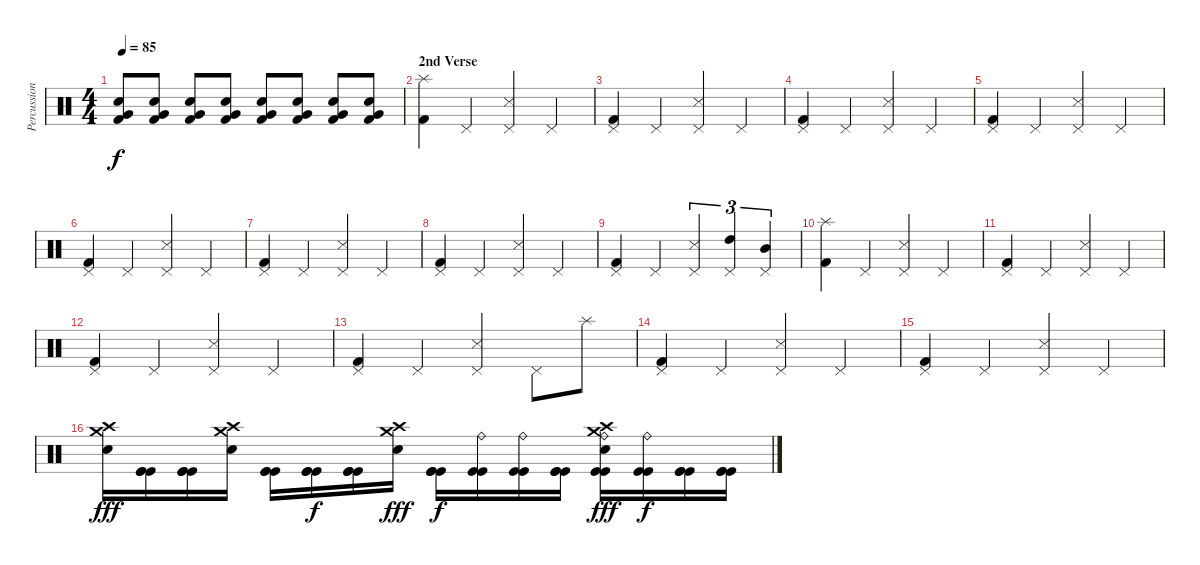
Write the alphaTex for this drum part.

\track ("Percussion" "Percussion") {instrument percussion}
\staff {score}
\articulation defaults
\ts (4 4)
\tempo 85
\clef neutral
\ks c
("Very Low Tom (hit)" "Electric Snare (hit)" "Kick (hit) 2").8{dy f} ("Very Low Tom (hit)" "Electric Snare (hit)" "Kick (hit) 2").8 ("Very Low Tom (hit)" "Electric Snare (hit)" "Kick (hit) 2").8 ("Very Low Tom (hit)" "Electric Snare (hit)" "Kick (hit) 2").8 ("Very Low Tom (hit)" "Electric Snare (hit)" "Kick (hit) 2").8 ("Very Low Tom (hit)" "Electric Snare (hit)" "Kick (hit) 2").8 ("Very Low Tom (hit)" "Electric Snare (hit)" "Kick (hit) 2").8 ("Very Low Tom (hit)" "Electric Snare (hit)" "Kick (hit) 2").8 |
\section ("" "2nd Verse")
("Splash (hit)" "Kick (hit) 2").4 "Pedal Hi-Hat (hit)".4 ("Pedal Hi-Hat (hit)" "Snare (side stick) 3").4 "Pedal Hi-Hat (hit)".4 |
("Pedal Hi-Hat (hit)" "Kick (hit) 2").4 "Pedal Hi-Hat (hit)".4 ("Pedal Hi-Hat (hit)" "Snare (side stick) 3").4 "Pedal Hi-Hat (hit)".4 |
("Pedal Hi-Hat (hit)" "Kick (hit) 2").4 "Pedal Hi-Hat (hit)".4 ("Pedal Hi-Hat (hit)" "Snare (side stick) 3").4 "Pedal Hi-Hat (hit)".4 |
("Pedal Hi-Hat (hit)" "Kick (hit) 2").4 "Pedal Hi-Hat (hit)".4 ("Pedal Hi-Hat (hit)" "Snare (side stick) 3").4 "Pedal Hi-Hat (hit)".4 |
("Pedal Hi-Hat (hit)" "Kick (hit) 2").4 "Pedal Hi-Hat (hit)".4 ("Pedal Hi-Hat (hit)" "Snare (side stick) 3").4 "Pedal Hi-Hat (hit)".4 |
("Pedal Hi-Hat (hit)" "Kick (hit) 2").4 "Pedal Hi-Hat (hit)".4 ("Pedal Hi-Hat (hit)" "Snare (side stick) 3").4 "Pedal Hi-Hat (hit)".4 |
("Pedal Hi-Hat (hit)" "Kick (hit) 2").4 "Pedal Hi-Hat (hit)".4 ("Pedal Hi-Hat (hit)" "Snare (side stick) 3").4 "Pedal Hi-Hat (hit)".4 |
("Pedal Hi-Hat (hit)" "Kick (hit) 2").4 "Pedal Hi-Hat (hit)".4 ("Pedal Hi-Hat (hit)" "Snare (side stick) 3").4{tu (3 2)} ("Pedal Hi-Hat (hit)" "High Tom (hit)").4{tu (3 2)} ("Pedal Hi-Hat (hit)" "Mid Tom (hit)").4{tu (3 2)} |
("Splash (hit)" "Kick (hit) 2").4 "Pedal Hi-Hat (hit)".4 ("Pedal Hi-Hat (hit)" "Snare (side stick) 3").4 "Pedal Hi-Hat (hit)".4 |
("Pedal Hi-Hat (hit)" "Kick (hit) 2").4 "Pedal Hi-Hat (hit)".4 ("Pedal Hi-Hat (hit)" "Snare (side stick) 3").4 "Pedal Hi-Hat (hit)".4 |
("Pedal Hi-Hat (hit)" "Kick (hit) 2").4 "Pedal Hi-Hat (hit)".4 ("Pedal Hi-Hat (hit)" "Snare (side stick) 3").4 "Pedal Hi-Hat (hit)".4 |
("Pedal Hi-Hat (hit)" "Kick (hit) 2").4 "Pedal Hi-Hat (hit)".4 ("Pedal Hi-Hat (hit)" "Snare (side stick) 3").4 "Pedal Hi-Hat (hit)".8 "Splash (hit)".8 |
("Pedal Hi-Hat (hit)" "Kick (hit) 2").4 "Pedal Hi-Hat (hit)".4 ("Pedal Hi-Hat (hit)" "Snare (side stick) 3").4 "Pedal Hi-Hat (hit)".4 |
("Pedal Hi-Hat (hit)" "Kick (hit) 2").4 "Pedal Hi-Hat (hit)".4 ("Pedal Hi-Hat (hit)" "Snare (side stick) 3").4 "Pedal Hi-Hat (hit)".4 |
("Crash high (hit)" "Crash medium (hit)" "Electric Snare (hit)").16{dy fff} ("Kick (hit)" "Kick (hit)" "Kick (hit)").16 ("Kick (hit)" "Kick (hit)" "Kick (hit)").16 ("Crash high (hit)" "Crash medium (hit)" "Electric Snare (hit)").16 ("Kick (hit)" "Kick (hit)" "Kick (hit)").16 ("Kick (hit)" "Kick (hit)" "Kick (hit)").16{dy f} ("Kick (hit)" "Kick (hit)" "Kick (hit)").16 ("Crash high (hit)" "Crash medium (hit)" "Electric Snare (hit)").16{dy fff} ("Kick (hit)" "Kick (hit)" "Kick (hit)").16{dy f} ("Kick (hit)" "Ride (bell)" "Kick (hit)").16 ("Ride (bell)" "Kick (hit)" "Kick (hit)").16 ("Kick (hit)" "Kick (hit)" "Kick (hit)").16 ("Crash high (hit)" "Crash medium (hit)" "Electric Snare (hit)" "Kick (hit)" "Ride (bell)" "Kick (hit)").16{dy fff} ("Kick (hit)" "Ride (bell)" "Kick (hit)").16{dy f} ("Kick (hit)" "Kick (hit)" "Kick (hit)").16 ("Kick (hit)" "Kick (hit)" "Kick (hit)").16
